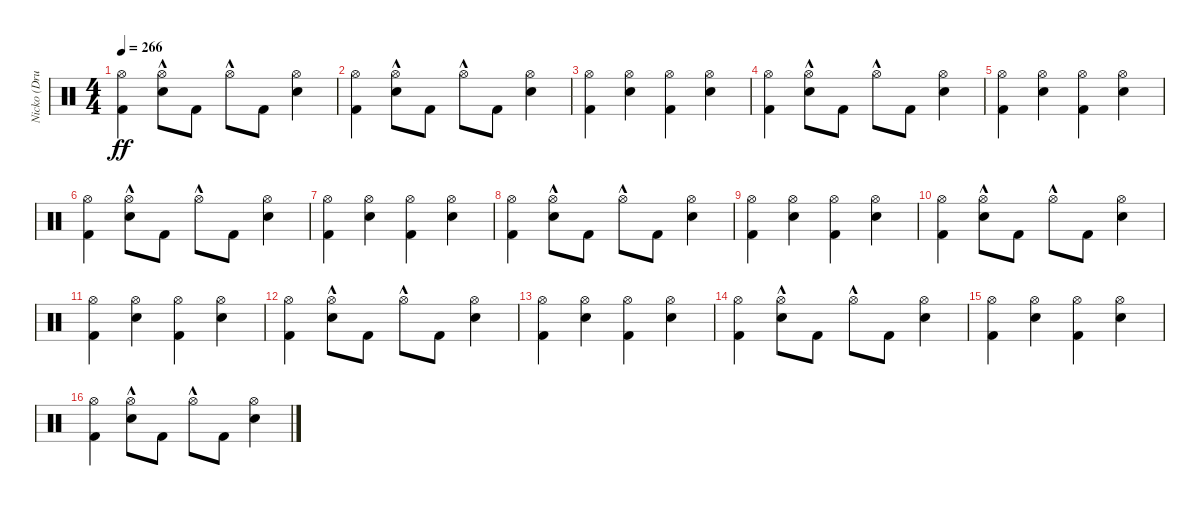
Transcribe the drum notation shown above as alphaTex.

\track ("Nicko (Drums)" "Nicko (Dru") {instrument percussion}
\staff {score}
\articulation defaults
\ts (4 4)
\tempo 266
\clef neutral
\ks c
("Kick (hit) 2" "Hi-Hat (open)").4{dy ff} ("Snare (hit) 2" "Hi-Hat (open)"{hac}).8 "Kick (hit) 2".8 "Hi-Hat (open)"{hac}.8 "Kick (hit) 2".8 ("Snare (hit) 2" "Hi-Hat (open)").4 |
("Kick (hit) 2" "Hi-Hat (open)").4 ("Snare (hit) 2" "Hi-Hat (open)"{hac}).8 "Kick (hit) 2".8 "Hi-Hat (open)"{hac}.8 "Kick (hit) 2".8 ("Snare (hit) 2" "Hi-Hat (open)").4 |
("Kick (hit) 2" "Hi-Hat (open)").4 ("Snare (hit) 2" "Hi-Hat (open)").4 ("Kick (hit) 2" "Hi-Hat (open)").4 ("Snare (hit) 2" "Hi-Hat (open)").4 |
("Kick (hit) 2" "Hi-Hat (open)").4 ("Snare (hit) 2" "Hi-Hat (open)"{hac}).8 "Kick (hit) 2".8 "Hi-Hat (open)"{hac}.8 "Kick (hit) 2".8 ("Snare (hit) 2" "Hi-Hat (open)").4 |
("Kick (hit) 2" "Hi-Hat (open)").4 ("Snare (hit) 2" "Hi-Hat (open)").4 ("Kick (hit) 2" "Hi-Hat (open)").4 ("Snare (hit) 2" "Hi-Hat (open)").4 |
("Kick (hit) 2" "Hi-Hat (open)").4 ("Snare (hit) 2" "Hi-Hat (open)"{hac}).8 "Kick (hit) 2".8 "Hi-Hat (open)"{hac}.8 "Kick (hit) 2".8 ("Snare (hit) 2" "Hi-Hat (open)").4 |
("Kick (hit) 2" "Hi-Hat (open)").4 ("Snare (hit) 2" "Hi-Hat (open)").4 ("Kick (hit) 2" "Hi-Hat (open)").4 ("Snare (hit) 2" "Hi-Hat (open)").4 |
("Kick (hit) 2" "Hi-Hat (open)").4 ("Snare (hit) 2" "Hi-Hat (open)"{hac}).8 "Kick (hit) 2".8 "Hi-Hat (open)"{hac}.8 "Kick (hit) 2".8 ("Snare (hit) 2" "Hi-Hat (open)").4 |
("Kick (hit) 2" "Hi-Hat (open)").4 ("Snare (hit) 2" "Hi-Hat (open)").4 ("Kick (hit) 2" "Hi-Hat (open)").4 ("Snare (hit) 2" "Hi-Hat (open)").4 |
("Kick (hit) 2" "Hi-Hat (open)").4 ("Snare (hit) 2" "Hi-Hat (open)"{hac}).8 "Kick (hit) 2".8 "Hi-Hat (open)"{hac}.8 "Kick (hit) 2".8 ("Snare (hit) 2" "Hi-Hat (open)").4 |
("Kick (hit) 2" "Hi-Hat (open)").4 ("Snare (hit) 2" "Hi-Hat (open)").4 ("Kick (hit) 2" "Hi-Hat (open)").4 ("Snare (hit) 2" "Hi-Hat (open)").4 |
("Kick (hit) 2" "Hi-Hat (open)").4 ("Snare (hit) 2" "Hi-Hat (open)"{hac}).8 "Kick (hit) 2".8 "Hi-Hat (open)"{hac}.8 "Kick (hit) 2".8 ("Snare (hit) 2" "Hi-Hat (open)").4 |
("Kick (hit) 2" "Hi-Hat (open)").4 ("Snare (hit) 2" "Hi-Hat (open)").4 ("Kick (hit) 2" "Hi-Hat (open)").4 ("Snare (hit) 2" "Hi-Hat (open)").4 |
("Kick (hit) 2" "Hi-Hat (open)").4 ("Snare (hit) 2" "Hi-Hat (open)"{hac}).8 "Kick (hit) 2".8 "Hi-Hat (open)"{hac}.8 "Kick (hit) 2".8 ("Snare (hit) 2" "Hi-Hat (open)").4 |
("Kick (hit) 2" "Hi-Hat (open)").4 ("Snare (hit) 2" "Hi-Hat (open)").4 ("Kick (hit) 2" "Hi-Hat (open)").4 ("Snare (hit) 2" "Hi-Hat (open)").4 |
("Kick (hit) 2" "Hi-Hat (open)").4 ("Snare (hit) 2" "Hi-Hat (open)"{hac}).8 "Kick (hit) 2".8 "Hi-Hat (open)"{hac}.8 "Kick (hit) 2".8 ("Snare (hit) 2" "Hi-Hat (open)").4
